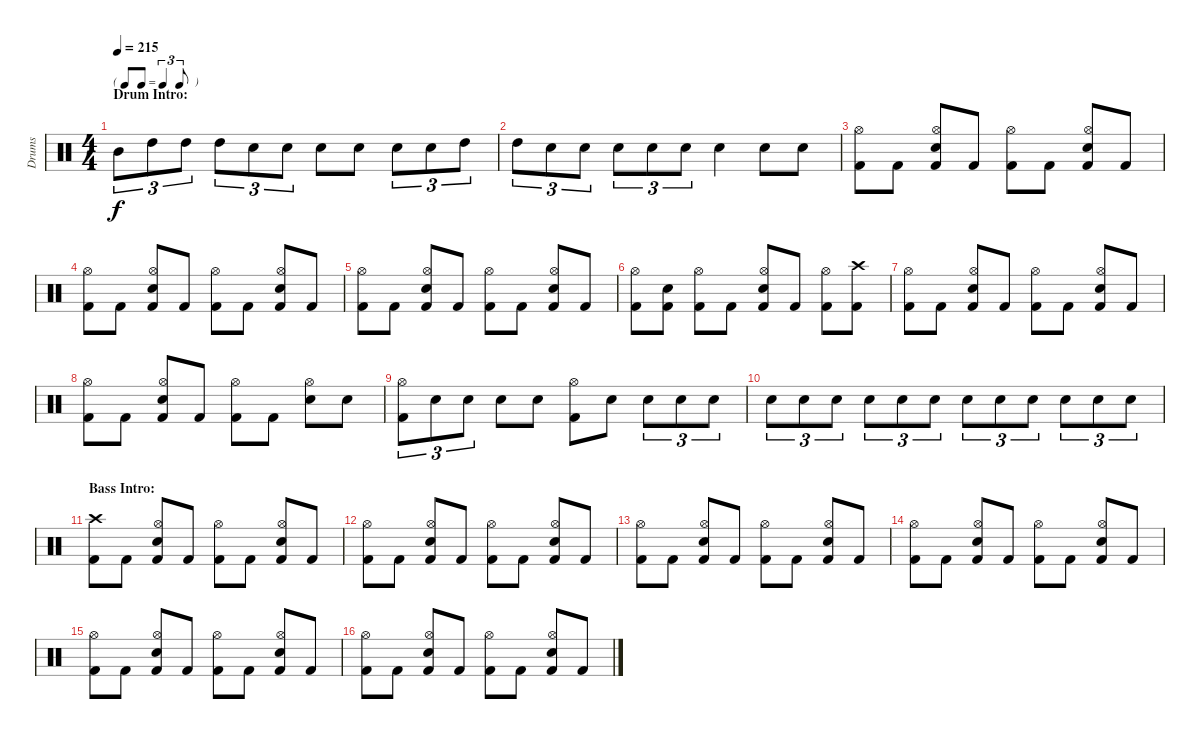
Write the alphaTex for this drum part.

\track ("Drums" "Drums") {instrument percussion}
\staff {score}
\articulation defaults
\ts (4 4)
\tf triplet8th
\section ("" "Drum Intro:")
\tempo 215
\clef neutral
\ks c "Mid Tom (hit)".8{tu (3 2) dy f} "High Tom (hit)".8{tu (3 2)} "High Tom (hit)".8{tu (3 2)} "High Tom (hit)".8{tu (3 2)} "Electric Snare (hit)".8{tu (3 2)} "Electric Snare (hit)".8{tu (3 2)} "Electric Snare (hit)".8 "Electric Snare (hit)".8 "Electric Snare (hit)".8{tu (3 2)} "Electric Snare (hit)".8{tu (3 2)} "High Tom (hit)".8{tu (3 2)}
|
"High Tom (hit)".8{tu (3 2)} "Electric Snare (hit)".8{tu (3 2)} "Electric Snare (hit)".8{tu (3 2)} "Electric Snare (hit)".8{tu (3 2)} "Electric Snare (hit)".8{tu (3 2)} "Electric Snare (hit)".8{tu (3 2)} "Electric Snare (hit)".4 "Electric Snare (hit)".8 "Electric Snare (hit)".8 |
("Hi-Hat (open)" "Kick (hit) 2").8 "Kick (hit) 2".8 ("Hi-Hat (open)" "Electric Snare (hit)" "Kick (hit) 2").8 "Kick (hit) 2".8 ("Hi-Hat (open)" "Kick (hit) 2").8 "Kick (hit) 2".8 ("Hi-Hat (open)" "Electric Snare (hit)" "Kick (hit) 2").8 "Kick (hit) 2".8 |
("Hi-Hat (open)" "Kick (hit) 2").8 "Kick (hit) 2".8 ("Hi-Hat (open)" "Electric Snare (hit)" "Kick (hit) 2").8 "Kick (hit) 2".8 ("Hi-Hat (open)" "Kick (hit) 2").8 "Kick (hit) 2".8 ("Hi-Hat (open)" "Electric Snare (hit)" "Kick (hit) 2").8 "Kick (hit) 2".8 |
("Hi-Hat (open)" "Kick (hit) 2").8 "Kick (hit) 2".8 ("Hi-Hat (open)" "Electric Snare (hit)" "Kick (hit) 2").8 "Kick (hit) 2".8 ("Hi-Hat (open)" "Kick (hit) 2").8 "Kick (hit) 2".8 ("Hi-Hat (open)" "Electric Snare (hit)" "Kick (hit) 2").8 "Kick (hit) 2".8 |
("Hi-Hat (open)" "Kick (hit) 2").8 ("Electric Snare (hit)" "Kick (hit) 2").8 ("Hi-Hat (open)" "Kick (hit) 2").8 "Kick (hit) 2".8 ("Hi-Hat (open)" "Electric Snare (hit)" "Kick (hit) 2").8 "Kick (hit) 2".8 ("Hi-Hat (open)" "Kick (hit) 2").8 ("Crash high (hit)" "Kick (hit) 2").8 |
("Hi-Hat (open)" "Kick (hit) 2").8 "Kick (hit) 2".8 ("Hi-Hat (open)" "Electric Snare (hit)" "Kick (hit) 2").8 "Kick (hit) 2".8 ("Hi-Hat (open)" "Kick (hit) 2").8 "Kick (hit) 2".8 ("Hi-Hat (open)" "Electric Snare (hit)" "Kick (hit) 2").8 "Kick (hit) 2".8 |
("Hi-Hat (open)" "Kick (hit) 2").8 "Kick (hit) 2".8 ("Hi-Hat (open)" "Electric Snare (hit)" "Kick (hit) 2").8 "Kick (hit) 2".8 ("Hi-Hat (open)" "Kick (hit) 2").8 "Kick (hit) 2".8 ("Hi-Hat (open)" "Electric Snare (hit)").8 "Electric Snare (hit)".8 |
("Hi-Hat (open)" "Kick (hit) 2").8{tu (3 2)} "Electric Snare (hit)".8{tu (3 2)} "Electric Snare (hit)".8{tu (3 2)} "Electric Snare (hit)".8 "Electric Snare (hit)".8 ("Hi-Hat (open)" "Kick (hit) 2").8 "Electric Snare (hit)".8 "Electric Snare (hit)".8{tu (3 2)} "Electric Snare (hit)".8{tu (3 2)} "Electric Snare (hit)".8{tu (3 2)} |
"Electric Snare (hit)".8{tu (3 2)} "Electric Snare (hit)".8{tu (3 2)} "Electric Snare (hit)".8{tu (3 2)} "Electric Snare (hit)".8{tu (3 2)} "Electric Snare (hit)".8{tu (3 2)} "Electric Snare (hit)".8{tu (3 2)} "Electric Snare (hit)".8{tu (3 2)} "Electric Snare (hit)".8{tu (3 2)} "Electric Snare (hit)".8{tu (3 2)} "Electric Snare (hit)".8{tu (3 2)} "Electric Snare (hit)".8{tu (3 2)} "Electric Snare (hit)".8{tu (3 2)} |
\section ("" "Bass Intro:")
("Crash high (hit)" "Kick (hit) 2").8 "Kick (hit) 2".8 ("Hi-Hat (open)" "Electric Snare (hit)" "Kick (hit) 2").8 "Kick (hit) 2".8 ("Hi-Hat (open)" "Kick (hit) 2").8 "Kick (hit) 2".8 ("Hi-Hat (open)" "Electric Snare (hit)" "Kick (hit) 2").8 "Kick (hit) 2".8 |
("Hi-Hat (open)" "Kick (hit) 2").8 "Kick (hit) 2".8 ("Hi-Hat (open)" "Electric Snare (hit)" "Kick (hit) 2").8 "Kick (hit) 2".8 ("Hi-Hat (open)" "Kick (hit) 2").8 "Kick (hit) 2".8 ("Hi-Hat (open)" "Electric Snare (hit)" "Kick (hit) 2").8 "Kick (hit) 2".8 |
("Hi-Hat (open)" "Kick (hit) 2").8 "Kick (hit) 2".8 ("Hi-Hat (open)" "Electric Snare (hit)" "Kick (hit) 2").8 "Kick (hit) 2".8 ("Hi-Hat (open)" "Kick (hit) 2").8 "Kick (hit) 2".8 ("Hi-Hat (open)" "Electric Snare (hit)" "Kick (hit) 2").8 "Kick (hit) 2".8 |
("Hi-Hat (open)" "Kick (hit) 2").8 "Kick (hit) 2".8 ("Hi-Hat (open)" "Electric Snare (hit)" "Kick (hit) 2").8 "Kick (hit) 2".8 ("Hi-Hat (open)" "Kick (hit) 2").8 "Kick (hit) 2".8 ("Hi-Hat (open)" "Electric Snare (hit)" "Kick (hit) 2").8 "Kick (hit) 2".8 |
("Hi-Hat (open)" "Kick (hit) 2").8 "Kick (hit) 2".8 ("Hi-Hat (open)" "Electric Snare (hit)" "Kick (hit) 2").8 "Kick (hit) 2".8 ("Hi-Hat (open)" "Kick (hit) 2").8 "Kick (hit) 2".8 ("Hi-Hat (open)" "Electric Snare (hit)" "Kick (hit) 2").8 "Kick (hit) 2".8 |
("Hi-Hat (open)" "Kick (hit) 2").8 "Kick (hit) 2".8 ("Hi-Hat (open)" "Electric Snare (hit)" "Kick (hit) 2").8 "Kick (hit) 2".8 ("Hi-Hat (open)" "Kick (hit) 2").8 "Kick (hit) 2".8 ("Hi-Hat (open)" "Electric Snare (hit)" "Kick (hit) 2").8 "Kick (hit) 2".8
